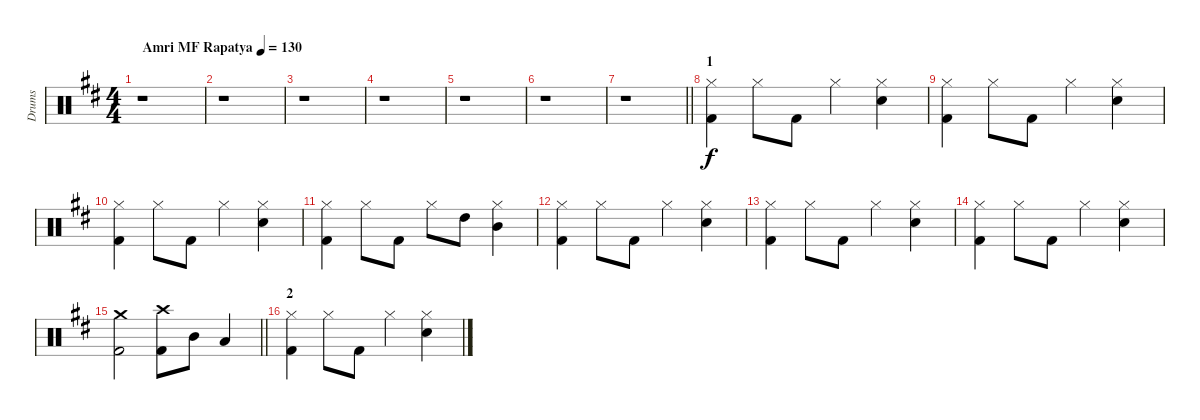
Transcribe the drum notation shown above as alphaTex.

\track ("Drums" "Drums") {instrument percussion}
\staff {score}
\articulation defaults
\ts (4 4)
\tempo (130 "Amri MF Rapatya")
\clef neutral
\ks d
r.1{dy f} |
r.1 |
r.1 |
r.1 |
r.1 |
r.1 |
\barLineRight lightlight
r.1 |
\section ("" "1")
("Kick (hit) 2" "Hi-Hat (closed)").4 "Hi-Hat (closed)".8 "Kick (hit) 2".8 "Hi-Hat (closed)".4 ("Electric Snare (hit)" "Hi-Hat (closed)").4 |
("Kick (hit) 2" "Hi-Hat (closed)").4 "Hi-Hat (closed)".8 "Kick (hit) 2".8 "Hi-Hat (closed)".4 ("Electric Snare (hit)" "Hi-Hat (closed)").4 |
("Kick (hit) 2" "Hi-Hat (closed)").4 "Hi-Hat (closed)".8 "Kick (hit) 2".8 "Hi-Hat (closed)".4 ("Electric Snare (hit)" "Hi-Hat (closed)").4 |
("Kick (hit) 2" "Hi-Hat (closed)").4 "Hi-Hat (closed)".8 "Kick (hit) 2".8 "Hi-Hat (closed)".8 "High Tom (hit)".8 ("Mid Tom (hit)" "Hi-Hat (closed)").4 |
("Kick (hit) 2" "Hi-Hat (closed)").4 "Hi-Hat (closed)".8 "Kick (hit) 2".8 "Hi-Hat (closed)".4 ("Electric Snare (hit)" "Hi-Hat (closed)").4 |
("Kick (hit) 2" "Hi-Hat (closed)").4 "Hi-Hat (closed)".8 "Kick (hit) 2".8 "Hi-Hat (closed)".4 ("Electric Snare (hit)" "Hi-Hat (closed)").4 |
("Kick (hit) 2" "Hi-Hat (closed)").4 "Hi-Hat (closed)".8 "Kick (hit) 2".8 "Hi-Hat (closed)".4 ("Electric Snare (hit)" "Hi-Hat (closed)").4 |
\barLineRight lightlight
("Kick (hit) 2" "Crash medium (hit)").2 ("Kick (hit) 2" "Crash high (hit)").8 "Mid Tom (hit)".8 "Low Tom (hit)".4 |
\section ("" "2")
("Kick (hit) 2" "Hi-Hat (closed)").4 "Hi-Hat (closed)".8 "Kick (hit) 2".8 "Hi-Hat (closed)".4 ("Electric Snare (hit)" "Hi-Hat (closed)").4
